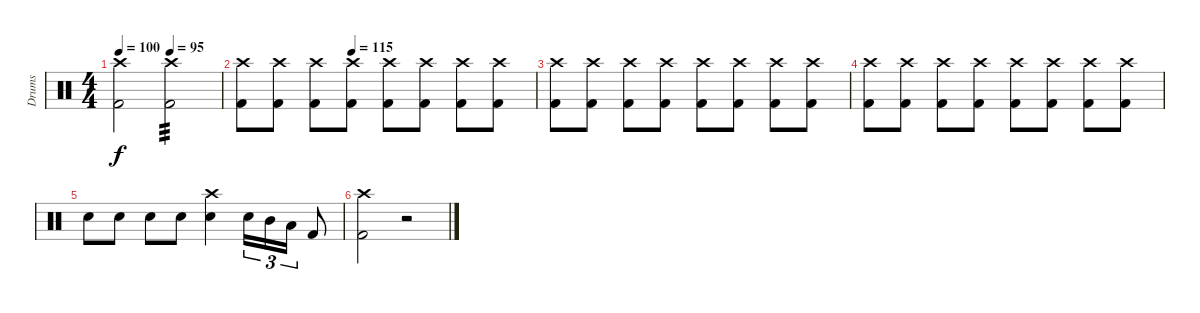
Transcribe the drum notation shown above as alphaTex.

\track ("Drums" "Drums") {instrument percussion}
\staff {score}
\articulation defaults
\ts (4 4)
\tempo 100
\tempo (95 0.5)
\clef neutral
\ks c
("Crash high (hit)" "Kick (hit) 2").2{dy f} ("Crash high (hit)" "Kick (hit) 2").2{tp 3} |
\tempo (115 0.375)
("Crash high (hit)" "Kick (hit) 2").8 ("Crash high (hit)" "Kick (hit) 2").8 ("Crash high (hit)" "Kick (hit) 2").8 ("Crash high (hit)" "Kick (hit) 2").8 ("Crash high (hit)" "Kick (hit) 2").8 ("Crash high (hit)" "Kick (hit) 2").8 ("Crash high (hit)" "Kick (hit) 2").8 ("Crash high (hit)" "Kick (hit) 2").8 |
("Crash high (hit)" "Kick (hit) 2").8 ("Crash high (hit)" "Kick (hit) 2").8 ("Crash high (hit)" "Kick (hit) 2").8 ("Crash high (hit)" "Kick (hit) 2").8 ("Crash high (hit)" "Kick (hit) 2").8 ("Crash high (hit)" "Kick (hit) 2").8 ("Crash high (hit)" "Kick (hit) 2").8 ("Crash high (hit)" "Kick (hit) 2").8 |
("Crash high (hit)" "Kick (hit) 2").8 ("Crash high (hit)" "Kick (hit) 2").8 ("Crash high (hit)" "Kick (hit) 2").8 ("Crash high (hit)" "Kick (hit) 2").8 ("Crash high (hit)" "Kick (hit) 2").8 ("Crash high (hit)" "Kick (hit) 2").8 ("Crash high (hit)" "Kick (hit) 2").8 ("Crash high (hit)" "Kick (hit) 2").8 |
"Snare (hit) 2".8 "Snare (hit) 2".8 "Snare (hit) 2".8 "Snare (hit) 2".8 ("Crash high (hit)" "Snare (hit) 2").4 "Snare (hit) 2".16{tu (3 2)} "Mid Tom (hit)".16{tu (3 2)} "Low Tom (hit)".16{tu (3 2)} "Kick (hit) 2".8 |
("Crash high (hit)" "Kick (hit) 2").2 r.2
